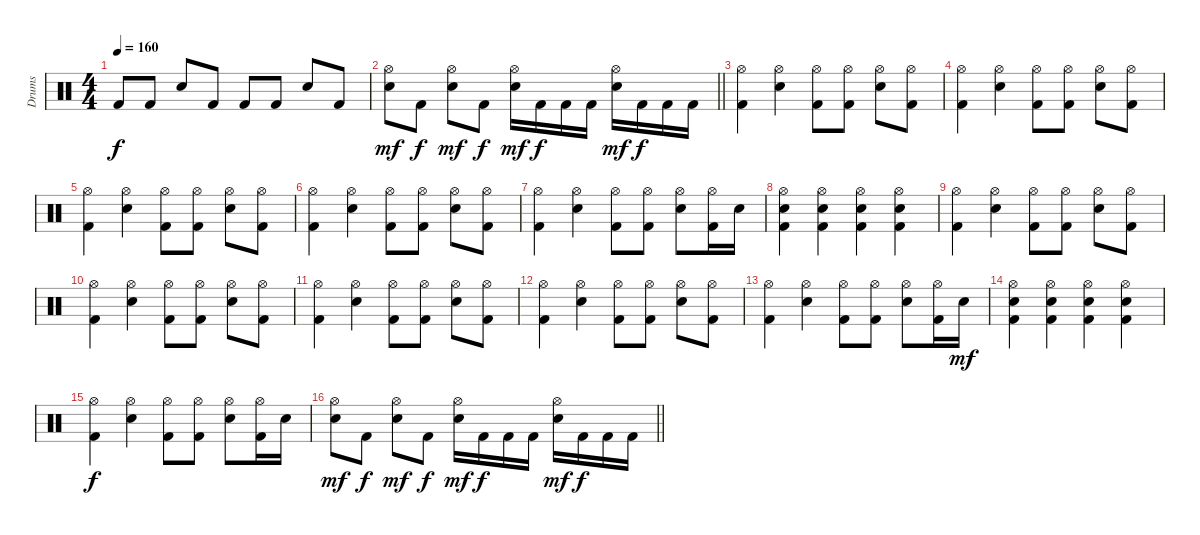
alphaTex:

\track ("Drums" "Drums") {instrument percussion}
\staff {score}
\articulation defaults
\ts (4 4)
\tempo 160
\clef neutral
\ks c "Kick (hit) 2".8{dy f} "Kick (hit) 2".8 "Snare (hit) 2".8 "Kick (hit) 2".8 "Kick (hit) 2".8 "Kick (hit) 2".8 "Snare (hit) 2".8 "Kick (hit) 2".8
|
\barLineRight lightlight
("Hi-Hat (open)" "Snare (hit) 2").8{dy mf} "Kick (hit) 2".8{dy f} ("Hi-Hat (open)" "Snare (hit) 2").8{dy mf} "Kick (hit) 2".8{dy f} ("Hi-Hat (open)" "Snare (hit) 2").16{dy mf} "Kick (hit) 2".16{dy f} "Kick (hit) 2".16 "Kick (hit) 2".16 ("Hi-Hat (open)" "Snare (hit) 2").16{dy mf} "Kick (hit) 2".16{dy f} "Kick (hit) 2".16 "Kick (hit) 2".16 |
("Hi-Hat (open)" "Kick (hit) 2").4 ("Hi-Hat (open)" "Snare (hit) 2").4 ("Hi-Hat (open)" "Kick (hit) 2").8 ("Hi-Hat (open)" "Kick (hit) 2").8 ("Hi-Hat (open)" "Snare (hit) 2").8 ("Hi-Hat (open)" "Kick (hit) 2").8 |
("Hi-Hat (open)" "Kick (hit) 2").4 ("Hi-Hat (open)" "Snare (hit) 2").4 ("Hi-Hat (open)" "Kick (hit) 2").8 ("Hi-Hat (open)" "Kick (hit) 2").8 ("Hi-Hat (open)" "Snare (hit) 2").8 ("Hi-Hat (open)" "Kick (hit) 2").8 |
("Hi-Hat (open)" "Kick (hit) 2").4 ("Hi-Hat (open)" "Snare (hit) 2").4 ("Hi-Hat (open)" "Kick (hit) 2").8 ("Hi-Hat (open)" "Kick (hit) 2").8 ("Hi-Hat (open)" "Snare (hit) 2").8 ("Hi-Hat (open)" "Kick (hit) 2").8 |
("Hi-Hat (open)" "Kick (hit) 2").4 ("Hi-Hat (open)" "Snare (hit) 2").4 ("Hi-Hat (open)" "Kick (hit) 2").8 ("Hi-Hat (open)" "Kick (hit) 2").8 ("Hi-Hat (open)" "Snare (hit) 2").8 ("Hi-Hat (open)" "Kick (hit) 2").8 |
("Hi-Hat (open)" "Kick (hit) 2").4 ("Hi-Hat (open)" "Snare (hit) 2").4 ("Hi-Hat (open)" "Kick (hit) 2").8 ("Hi-Hat (open)" "Kick (hit) 2").8 ("Hi-Hat (open)" "Snare (hit) 2").8 ("Hi-Hat (open)" "Kick (hit) 2").16 "Snare (hit) 2".16 |
("Hi-Hat (open)" "Snare (hit) 2" "Kick (hit) 2").4 ("Hi-Hat (open)" "Snare (hit) 2" "Kick (hit) 2").4 ("Hi-Hat (open)" "Snare (hit) 2" "Kick (hit) 2").4 ("Hi-Hat (open)" "Snare (hit) 2" "Kick (hit) 2").4 |
("Hi-Hat (open)" "Kick (hit) 2").4 ("Hi-Hat (open)" "Snare (hit) 2").4 ("Hi-Hat (open)" "Kick (hit) 2").8 ("Hi-Hat (open)" "Kick (hit) 2").8 ("Hi-Hat (open)" "Snare (hit) 2").8 ("Hi-Hat (open)" "Kick (hit) 2").8 |
("Hi-Hat (open)" "Kick (hit) 2").4 ("Hi-Hat (open)" "Snare (hit) 2").4 ("Hi-Hat (open)" "Kick (hit) 2").8 ("Hi-Hat (open)" "Kick (hit) 2").8 ("Hi-Hat (open)" "Snare (hit) 2").8 ("Hi-Hat (open)" "Kick (hit) 2").8 |
("Hi-Hat (open)" "Kick (hit) 2").4 ("Hi-Hat (open)" "Snare (hit) 2").4 ("Hi-Hat (open)" "Kick (hit) 2").8 ("Hi-Hat (open)" "Kick (hit) 2").8 ("Hi-Hat (open)" "Snare (hit) 2").8 ("Hi-Hat (open)" "Kick (hit) 2").8 |
("Hi-Hat (open)" "Kick (hit) 2").4 ("Hi-Hat (open)" "Snare (hit) 2").4 ("Hi-Hat (open)" "Kick (hit) 2").8 ("Hi-Hat (open)" "Kick (hit) 2").8 ("Hi-Hat (open)" "Snare (hit) 2").8 ("Hi-Hat (open)" "Kick (hit) 2").8 |
("Hi-Hat (open)" "Kick (hit) 2").4 ("Hi-Hat (open)" "Snare (hit) 2").4 ("Hi-Hat (open)" "Kick (hit) 2").8 ("Hi-Hat (open)" "Kick (hit) 2").8 ("Hi-Hat (open)" "Snare (hit) 2").8 ("Hi-Hat (open)" "Kick (hit) 2").16 "Snare (hit) 2".16{dy mf} |
("Hi-Hat (open)" "Snare (hit) 2" "Kick (hit) 2").4 ("Hi-Hat (open)" "Snare (hit) 2" "Kick (hit) 2").4 ("Hi-Hat (open)" "Snare (hit) 2" "Kick (hit) 2").4 ("Hi-Hat (open)" "Snare (hit) 2" "Kick (hit) 2").4 |
("Hi-Hat (open)" "Kick (hit) 2").4{dy f} ("Hi-Hat (open)" "Snare (hit) 2").4 ("Hi-Hat (open)" "Kick (hit) 2").8 ("Hi-Hat (open)" "Kick (hit) 2").8 ("Hi-Hat (open)" "Snare (hit) 2").8 ("Hi-Hat (open)" "Kick (hit) 2").16 "Snare (hit) 2".16 |
\barLineRight lightlight
("Hi-Hat (open)" "Snare (hit) 2").8{dy mf} "Kick (hit) 2".8{dy f} ("Hi-Hat (open)" "Snare (hit) 2").8{dy mf} "Kick (hit) 2".8{dy f} ("Hi-Hat (open)" "Snare (hit) 2").16{dy mf} "Kick (hit) 2".16{dy f} "Kick (hit) 2".16 "Kick (hit) 2".16 ("Hi-Hat (open)" "Snare (hit) 2").16{dy mf} "Kick (hit) 2".16{dy f} "Kick (hit) 2".16 "Kick (hit) 2".16
